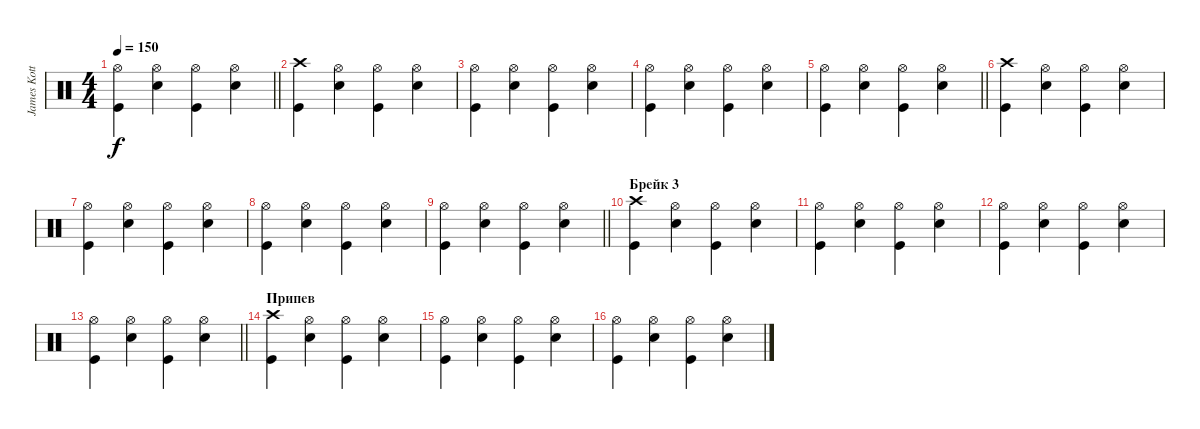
\track ("James Kottak" "James Kott") {instrument percussion}
\staff {score}
\articulation defaults
\ts (4 4)
\tempo 150
\clef neutral
\barLineRight lightlight
\ks c
("Hi-Hat (open)" "Kick (hit)").4{dy f} ("Hi-Hat (open)" "Snare (hit) 2").4 ("Hi-Hat (open)" "Kick (hit)").4 ("Hi-Hat (open)" "Snare (hit) 2").4 |
("Crash high (hit)" "Kick (hit)").4 ("Hi-Hat (open)" "Snare (hit) 2").4 ("Hi-Hat (open)" "Kick (hit)").4 ("Hi-Hat (open)" "Snare (hit) 2").4 |
("Hi-Hat (open)" "Kick (hit)").4 ("Hi-Hat (open)" "Snare (hit) 2").4 ("Hi-Hat (open)" "Kick (hit)").4 ("Hi-Hat (open)" "Snare (hit) 2").4 |
("Hi-Hat (open)" "Kick (hit)").4 ("Hi-Hat (open)" "Snare (hit) 2").4 ("Hi-Hat (open)" "Kick (hit)").4 ("Hi-Hat (open)" "Snare (hit) 2").4 |
\barLineRight lightlight
("Hi-Hat (open)" "Kick (hit)").4 ("Hi-Hat (open)" "Snare (hit) 2").4 ("Hi-Hat (open)" "Kick (hit)").4 ("Hi-Hat (open)" "Snare (hit) 2").4 |
("Crash high (hit)" "Kick (hit)").4 ("Hi-Hat (open)" "Snare (hit) 2").4 ("Hi-Hat (open)" "Kick (hit)").4 ("Hi-Hat (open)" "Snare (hit) 2").4 |
("Hi-Hat (open)" "Kick (hit)").4 ("Hi-Hat (open)" "Snare (hit) 2").4 ("Hi-Hat (open)" "Kick (hit)").4 ("Hi-Hat (open)" "Snare (hit) 2").4 |
("Hi-Hat (open)" "Kick (hit)").4 ("Hi-Hat (open)" "Snare (hit) 2").4 ("Hi-Hat (open)" "Kick (hit)").4 ("Hi-Hat (open)" "Snare (hit) 2").4 |
\barLineRight lightlight
("Hi-Hat (open)" "Kick (hit)").4 ("Hi-Hat (open)" "Snare (hit) 2").4 ("Hi-Hat (open)" "Kick (hit)").4 ("Hi-Hat (open)" "Snare (hit) 2").4 |
\section ("" "Брейк 3")
("Crash high (hit)" "Kick (hit)").4 ("Hi-Hat (open)" "Snare (hit) 2").4 ("Hi-Hat (open)" "Kick (hit)").4 ("Hi-Hat (open)" "Snare (hit) 2").4 |
("Hi-Hat (open)" "Kick (hit)").4 ("Hi-Hat (open)" "Snare (hit) 2").4 ("Hi-Hat (open)" "Kick (hit)").4 ("Hi-Hat (open)" "Snare (hit) 2").4 |
("Hi-Hat (open)" "Kick (hit)").4 ("Hi-Hat (open)" "Snare (hit) 2").4 ("Hi-Hat (open)" "Kick (hit)").4 ("Hi-Hat (open)" "Snare (hit) 2").4 |
\barLineRight lightlight
("Hi-Hat (open)" "Kick (hit)").4 ("Hi-Hat (open)" "Snare (hit) 2").4 ("Hi-Hat (open)" "Kick (hit)").4 ("Hi-Hat (open)" "Snare (hit) 2").4 |
\section ("" "Припев")
("Crash high (hit)" "Kick (hit)").4 ("Hi-Hat (open)" "Snare (hit) 2").4 ("Hi-Hat (open)" "Kick (hit)").4 ("Hi-Hat (open)" "Snare (hit) 2").4 |
("Hi-Hat (open)" "Kick (hit)").4 ("Hi-Hat (open)" "Snare (hit) 2").4 ("Hi-Hat (open)" "Kick (hit)").4 ("Hi-Hat (open)" "Snare (hit) 2").4 |
("Hi-Hat (open)" "Kick (hit)").4 ("Hi-Hat (open)" "Snare (hit) 2").4 ("Hi-Hat (open)" "Kick (hit)").4 ("Hi-Hat (open)" "Snare (hit) 2").4
